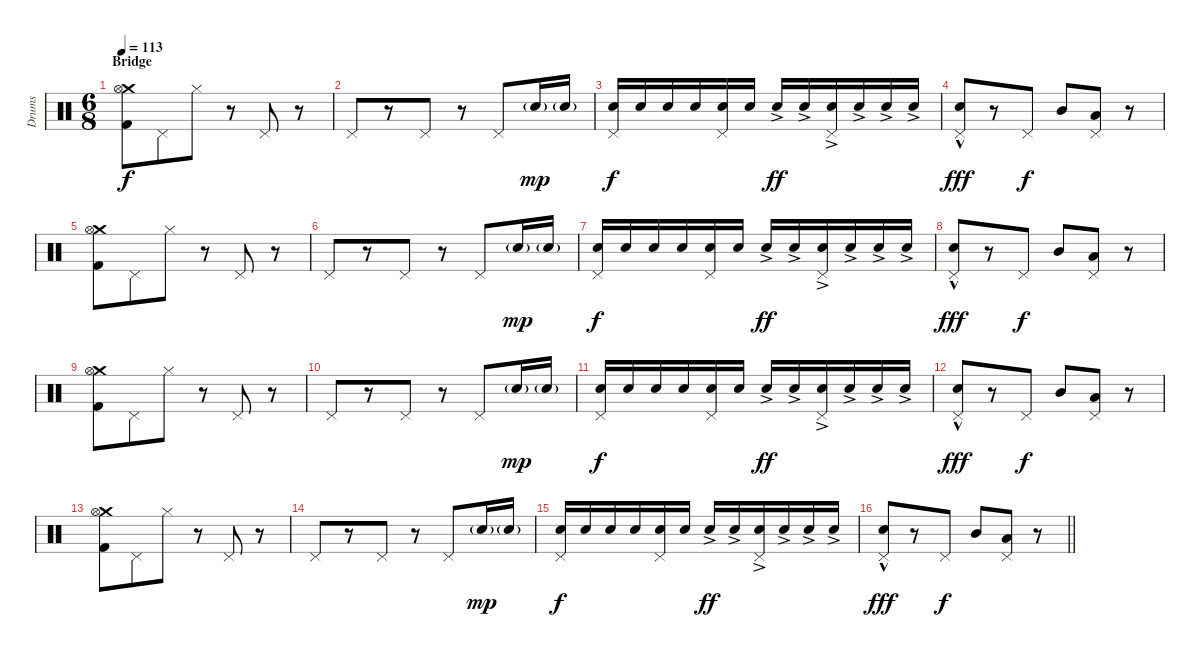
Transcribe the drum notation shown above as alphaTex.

\track ("Drums" "Drums") {instrument percussion}
\staff {score}
\articulation defaults
\ts (6 8)
\section ("" "Bridge")
\tempo 113
\clef neutral
\ks c
("Crash medium (hit)" "Hi-Hat (open)" "Kick (hit) 2").8{dy f} "Pedal Hi-Hat (hit)".8 "Hi-Hat (closed)".8 r.8 "Pedal Hi-Hat (hit)".8 r.8 |
"Pedal Hi-Hat (hit)".8 r.8 "Pedal Hi-Hat (hit)".8 r.8 "Pedal Hi-Hat (hit)".8 "Electric Snare (hit)"{g}.16{dy mp} "Electric Snare (hit)"{g}.16 |
("Pedal Hi-Hat (hit)" "Electric Snare (hit)").16{dy f} "Electric Snare (hit)".16 "Electric Snare (hit)".16 "Electric Snare (hit)".16 ("Pedal Hi-Hat (hit)" "Electric Snare (hit)").16 "Electric Snare (hit)".16 "Electric Snare (hit)"{ac}.16{dy ff} "Electric Snare (hit)"{ac}.16 ("Pedal Hi-Hat (hit)" "Electric Snare (hit)"{ac}).16 "Electric Snare (hit)"{ac}.16 "Electric Snare (hit)"{ac}.16 "Electric Snare (hit)"{ac}.16 |
("Pedal Hi-Hat (hit)" "Electric Snare (hit)"{hac}).8{dy fff} r.8 "Pedal Hi-Hat (hit)".8{dy f} "Mid Tom (hit)".8 ("Pedal Hi-Hat (hit)" "Low Tom (hit)").8 r.8 |
("Crash medium (hit)" "Hi-Hat (open)" "Kick (hit) 2").8 "Pedal Hi-Hat (hit)".8 "Hi-Hat (closed)".8 r.8 "Pedal Hi-Hat (hit)".8 r.8 |
"Pedal Hi-Hat (hit)".8 r.8 "Pedal Hi-Hat (hit)".8 r.8 "Pedal Hi-Hat (hit)".8 "Electric Snare (hit)"{g}.16{dy mp} "Electric Snare (hit)"{g}.16 |
("Pedal Hi-Hat (hit)" "Electric Snare (hit)").16{dy f} "Electric Snare (hit)".16 "Electric Snare (hit)".16 "Electric Snare (hit)".16 ("Pedal Hi-Hat (hit)" "Electric Snare (hit)").16 "Electric Snare (hit)".16 "Electric Snare (hit)"{ac}.16{dy ff} "Electric Snare (hit)"{ac}.16 ("Pedal Hi-Hat (hit)" "Electric Snare (hit)"{ac}).16 "Electric Snare (hit)"{ac}.16 "Electric Snare (hit)"{ac}.16 "Electric Snare (hit)"{ac}.16 |
("Pedal Hi-Hat (hit)" "Electric Snare (hit)"{hac}).8{dy fff} r.8 "Pedal Hi-Hat (hit)".8{dy f} "Mid Tom (hit)".8 ("Pedal Hi-Hat (hit)" "Low Tom (hit)").8 r.8 |
("Crash medium (hit)" "Hi-Hat (open)" "Kick (hit) 2").8 "Pedal Hi-Hat (hit)".8 "Hi-Hat (closed)".8 r.8 "Pedal Hi-Hat (hit)".8 r.8 |
"Pedal Hi-Hat (hit)".8 r.8 "Pedal Hi-Hat (hit)".8 r.8 "Pedal Hi-Hat (hit)".8 "Electric Snare (hit)"{g}.16{dy mp} "Electric Snare (hit)"{g}.16 |
("Pedal Hi-Hat (hit)" "Electric Snare (hit)").16{dy f} "Electric Snare (hit)".16 "Electric Snare (hit)".16 "Electric Snare (hit)".16 ("Pedal Hi-Hat (hit)" "Electric Snare (hit)").16 "Electric Snare (hit)".16 "Electric Snare (hit)"{ac}.16{dy ff} "Electric Snare (hit)"{ac}.16 ("Pedal Hi-Hat (hit)" "Electric Snare (hit)"{ac}).16 "Electric Snare (hit)"{ac}.16 "Electric Snare (hit)"{ac}.16 "Electric Snare (hit)"{ac}.16 |
("Pedal Hi-Hat (hit)" "Electric Snare (hit)"{hac}).8{dy fff} r.8 "Pedal Hi-Hat (hit)".8{dy f} "Mid Tom (hit)".8 ("Pedal Hi-Hat (hit)" "Low Tom (hit)").8 r.8 |
("Crash medium (hit)" "Hi-Hat (open)" "Kick (hit) 2").8 "Pedal Hi-Hat (hit)".8 "Hi-Hat (closed)".8 r.8 "Pedal Hi-Hat (hit)".8 r.8 |
"Pedal Hi-Hat (hit)".8 r.8 "Pedal Hi-Hat (hit)".8 r.8 "Pedal Hi-Hat (hit)".8 "Electric Snare (hit)"{g}.16{dy mp} "Electric Snare (hit)"{g}.16 |
("Pedal Hi-Hat (hit)" "Electric Snare (hit)").16{dy f} "Electric Snare (hit)".16 "Electric Snare (hit)".16 "Electric Snare (hit)".16 ("Pedal Hi-Hat (hit)" "Electric Snare (hit)").16 "Electric Snare (hit)".16 "Electric Snare (hit)"{ac}.16{dy ff} "Electric Snare (hit)"{ac}.16 ("Pedal Hi-Hat (hit)" "Electric Snare (hit)"{ac}).16 "Electric Snare (hit)"{ac}.16 "Electric Snare (hit)"{ac}.16 "Electric Snare (hit)"{ac}.16 |
\barLineRight lightlight
("Pedal Hi-Hat (hit)" "Electric Snare (hit)"{hac}).8{dy fff} r.8 "Pedal Hi-Hat (hit)".8{dy f} "Mid Tom (hit)".8 ("Pedal Hi-Hat (hit)" "Low Tom (hit)").8 r.8
